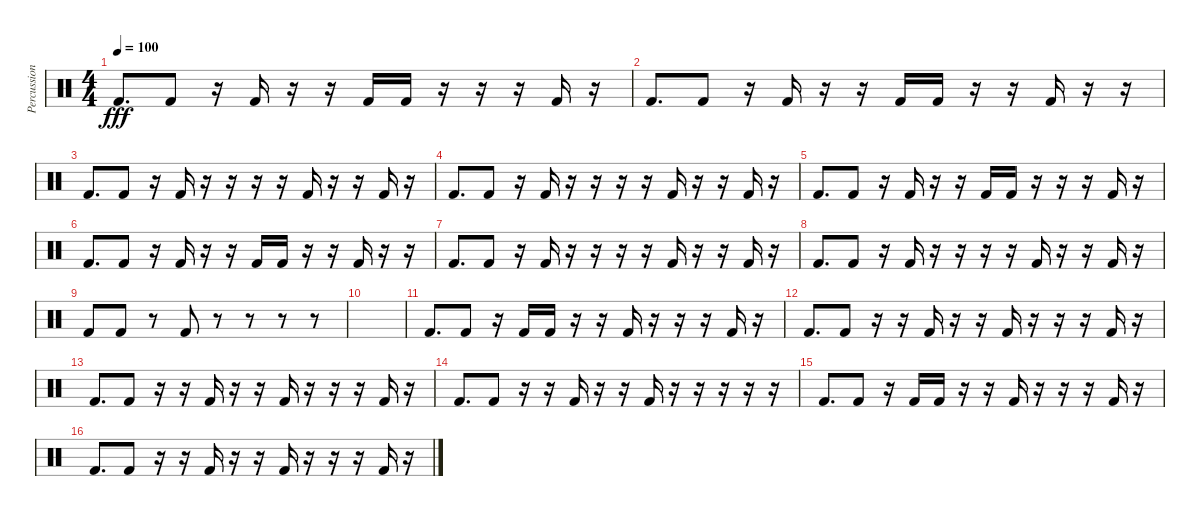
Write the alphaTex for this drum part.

\track ("Percussion" "Percussion") {instrument percussion}
\staff {score}
\articulation defaults
\ts (4 4)
\tempo 100
\clef neutral
\ks c "Kick (hit) 2".8{d dy fff} "Kick (hit) 2".8
r.16 "Kick (hit) 2".16 r.16 r.16 "Kick (hit) 2".16 "Kick (hit) 2".16 r.16 r.16 r.16 "Kick (hit) 2".16 r.16 |
"Kick (hit) 2".8{d} "Kick (hit) 2".8 r.16 "Kick (hit) 2".16 r.16 r.16 "Kick (hit) 2".16 "Kick (hit) 2".16 r.16 r.16 "Kick (hit) 2".16 r.16 r.16 |
"Kick (hit) 2".8{d} "Kick (hit) 2".8 r.16 "Kick (hit) 2".16 r.16 r.16 r.16 r.16 "Kick (hit) 2".16 r.16 r.16 "Kick (hit) 2".16 r.16 |
"Kick (hit) 2".8{d} "Kick (hit) 2".8 r.16 "Kick (hit) 2".16 r.16 r.16 r.16 r.16 "Kick (hit) 2".16 r.16 r.16 "Kick (hit) 2".16 r.16 |
"Kick (hit) 2".8{d} "Kick (hit) 2".8 r.16 "Kick (hit) 2".16 r.16 r.16 "Kick (hit) 2".16 "Kick (hit) 2".16 r.16 r.16 r.16 "Kick (hit) 2".16 r.16 |
"Kick (hit) 2".8{d} "Kick (hit) 2".8 r.16 "Kick (hit) 2".16 r.16 r.16 "Kick (hit) 2".16 "Kick (hit) 2".16 r.16 r.16 "Kick (hit) 2".16 r.16 r.16 |
"Kick (hit) 2".8{d} "Kick (hit) 2".8 r.16 "Kick (hit) 2".16 r.16 r.16 r.16 r.16 "Kick (hit) 2".16 r.16 r.16 "Kick (hit) 2".16 r.16 |
"Kick (hit) 2".8{d} "Kick (hit) 2".8 r.16 "Kick (hit) 2".16 r.16 r.16 r.16 r.16 "Kick (hit) 2".16 r.16 r.16 "Kick (hit) 2".16 r.16 |
"Kick (hit) 2".8 "Kick (hit) 2".8 r.8 "Kick (hit) 2".8 r.8 r.8 r.8 r.8 |
|
"Kick (hit) 2".8{d} "Kick (hit) 2".8 r.16 "Kick (hit) 2".16 "Kick (hit) 2".16 r.16 r.16 "Kick (hit) 2".16 r.16 r.16 r.16 "Kick (hit) 2".16 r.16 |
"Kick (hit) 2".8{d} "Kick (hit) 2".8 r.16 r.16 "Kick (hit) 2".16 r.16 r.16 "Kick (hit) 2".16 r.16 r.16 r.16 "Kick (hit) 2".16 r.16 |
"Kick (hit) 2".8{d} "Kick (hit) 2".8 r.16 r.16 "Kick (hit) 2".16 r.16 r.16 "Kick (hit) 2".16 r.16 r.16 r.16 "Kick (hit) 2".16 r.16 |
"Kick (hit) 2".8{d} "Kick (hit) 2".8 r.16 r.16 "Kick (hit) 2".16 r.16 r.16 "Kick (hit) 2".16 r.16 r.16 r.16 r.16 r.16 |
"Kick (hit) 2".8{d} "Kick (hit) 2".8 r.16 "Kick (hit) 2".16 "Kick (hit) 2".16 r.16 r.16 "Kick (hit) 2".16 r.16 r.16 r.16 "Kick (hit) 2".16 r.16 |
"Kick (hit) 2".8{d} "Kick (hit) 2".8 r.16 r.16 "Kick (hit) 2".16 r.16 r.16 "Kick (hit) 2".16 r.16 r.16 r.16 "Kick (hit) 2".16 r.16
